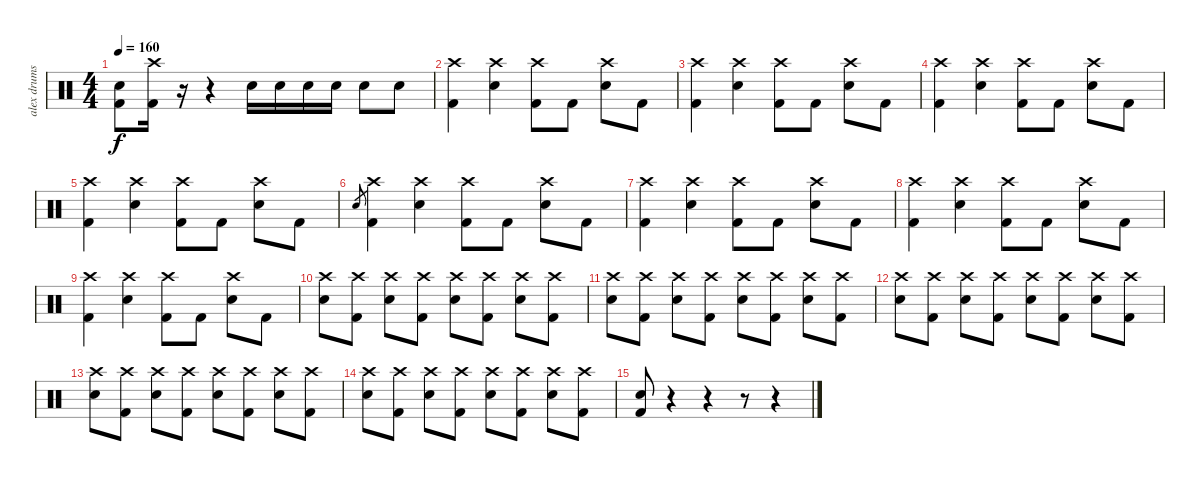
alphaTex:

\track ("alex drums" "alex drums") {instrument percussion}
\staff {score}
\articulation defaults
\ts (4 4)
\tempo 160
\clef neutral
\ks c
("Snare (hit) 2" "Kick (hit) 2").8{dy f} ("Crash high (hit)" "Kick (hit) 2").16 r.16 r.4 "Snare (hit) 2".16 "Snare (hit) 2".16 "Snare (hit) 2".16 "Snare (hit) 2".16 "Snare (hit) 2".8 "Snare (hit) 2".8 |
("Crash high (hit)" "Kick (hit) 2").4 ("Crash high (hit)" "Snare (hit) 2").4 ("Crash high (hit)" "Kick (hit) 2").8 "Kick (hit) 2".8 ("Crash high (hit)" "Snare (hit) 2").8 "Kick (hit) 2".8 |
("Crash high (hit)" "Kick (hit) 2").4 ("Crash high (hit)" "Snare (hit) 2").4 ("Crash high (hit)" "Kick (hit) 2").8 "Kick (hit) 2".8 ("Crash high (hit)" "Snare (hit) 2").8 "Kick (hit) 2".8 |
("Crash high (hit)" "Kick (hit) 2").4 ("Crash high (hit)" "Snare (hit) 2").4 ("Crash high (hit)" "Kick (hit) 2").8 "Kick (hit) 2".8 ("Crash high (hit)" "Snare (hit) 2").8 "Kick (hit) 2".8 |
("Crash high (hit)" "Kick (hit) 2").4 ("Crash high (hit)" "Snare (hit) 2").4 ("Crash high (hit)" "Kick (hit) 2").8 "Kick (hit) 2".8 ("Crash high (hit)" "Snare (hit) 2").8 "Kick (hit) 2".8 |
"Snare (hit)".8{gr} ("Crash high (hit)" "Kick (hit) 2").4 ("Crash high (hit)" "Snare (hit) 2").4 ("Crash high (hit)" "Kick (hit) 2").8 "Kick (hit) 2".8 ("Crash high (hit)" "Snare (hit) 2").8 "Kick (hit) 2".8 |
("Crash high (hit)" "Kick (hit) 2").4 ("Crash high (hit)" "Snare (hit) 2").4 ("Crash high (hit)" "Kick (hit) 2").8 "Kick (hit) 2".8 ("Crash high (hit)" "Snare (hit) 2").8 "Kick (hit) 2".8 |
("Crash high (hit)" "Kick (hit) 2").4 ("Crash high (hit)" "Snare (hit) 2").4 ("Crash high (hit)" "Kick (hit) 2").8 "Kick (hit) 2".8 ("Crash high (hit)" "Snare (hit) 2").8 "Kick (hit) 2".8 |
("Crash high (hit)" "Kick (hit) 2").4 ("Crash high (hit)" "Snare (hit) 2").4 ("Crash high (hit)" "Kick (hit) 2").8 "Kick (hit) 2".8 ("Crash high (hit)" "Snare (hit) 2").8 "Kick (hit) 2".8 |
("Crash high (hit)" "Snare (hit) 2").8 ("Crash high (hit)" "Kick (hit) 2").8 ("Crash high (hit)" "Snare (hit) 2").8 ("Crash high (hit)" "Kick (hit) 2").8 ("Crash high (hit)" "Snare (hit) 2").8 ("Crash high (hit)" "Kick (hit) 2").8 ("Crash high (hit)" "Snare (hit) 2").8 ("Crash high (hit)" "Kick (hit) 2").8 |
("Crash high (hit)" "Snare (hit) 2").8 ("Crash high (hit)" "Kick (hit) 2").8 ("Crash high (hit)" "Snare (hit) 2").8 ("Crash high (hit)" "Kick (hit) 2").8 ("Crash high (hit)" "Snare (hit) 2").8 ("Crash high (hit)" "Kick (hit) 2").8 ("Crash high (hit)" "Snare (hit) 2").8 ("Crash high (hit)" "Kick (hit) 2").8 |
("Crash high (hit)" "Snare (hit) 2").8 ("Crash high (hit)" "Kick (hit) 2").8 ("Crash high (hit)" "Snare (hit) 2").8 ("Crash high (hit)" "Kick (hit) 2").8 ("Crash high (hit)" "Snare (hit) 2").8 ("Crash high (hit)" "Kick (hit) 2").8 ("Crash high (hit)" "Snare (hit) 2").8 ("Crash high (hit)" "Kick (hit) 2").8 |
("Crash high (hit)" "Snare (hit) 2").8 ("Crash high (hit)" "Kick (hit) 2").8 ("Crash high (hit)" "Snare (hit) 2").8 ("Crash high (hit)" "Kick (hit) 2").8 ("Crash high (hit)" "Snare (hit) 2").8 ("Crash high (hit)" "Kick (hit) 2").8 ("Crash high (hit)" "Snare (hit) 2").8 ("Crash high (hit)" "Kick (hit) 2").8 |
("Crash high (hit)" "Snare (hit) 2").8 ("Crash high (hit)" "Kick (hit) 2").8 ("Crash high (hit)" "Snare (hit) 2").8 ("Crash high (hit)" "Kick (hit) 2").8 ("Crash high (hit)" "Snare (hit) 2").8 ("Crash high (hit)" "Kick (hit) 2").8 ("Crash high (hit)" "Snare (hit) 2").8 ("Crash high (hit)" "Kick (hit) 2").8 |
("Snare (hit) 2" "Kick (hit) 2").8 r.4 r.4 r.8 r.4
